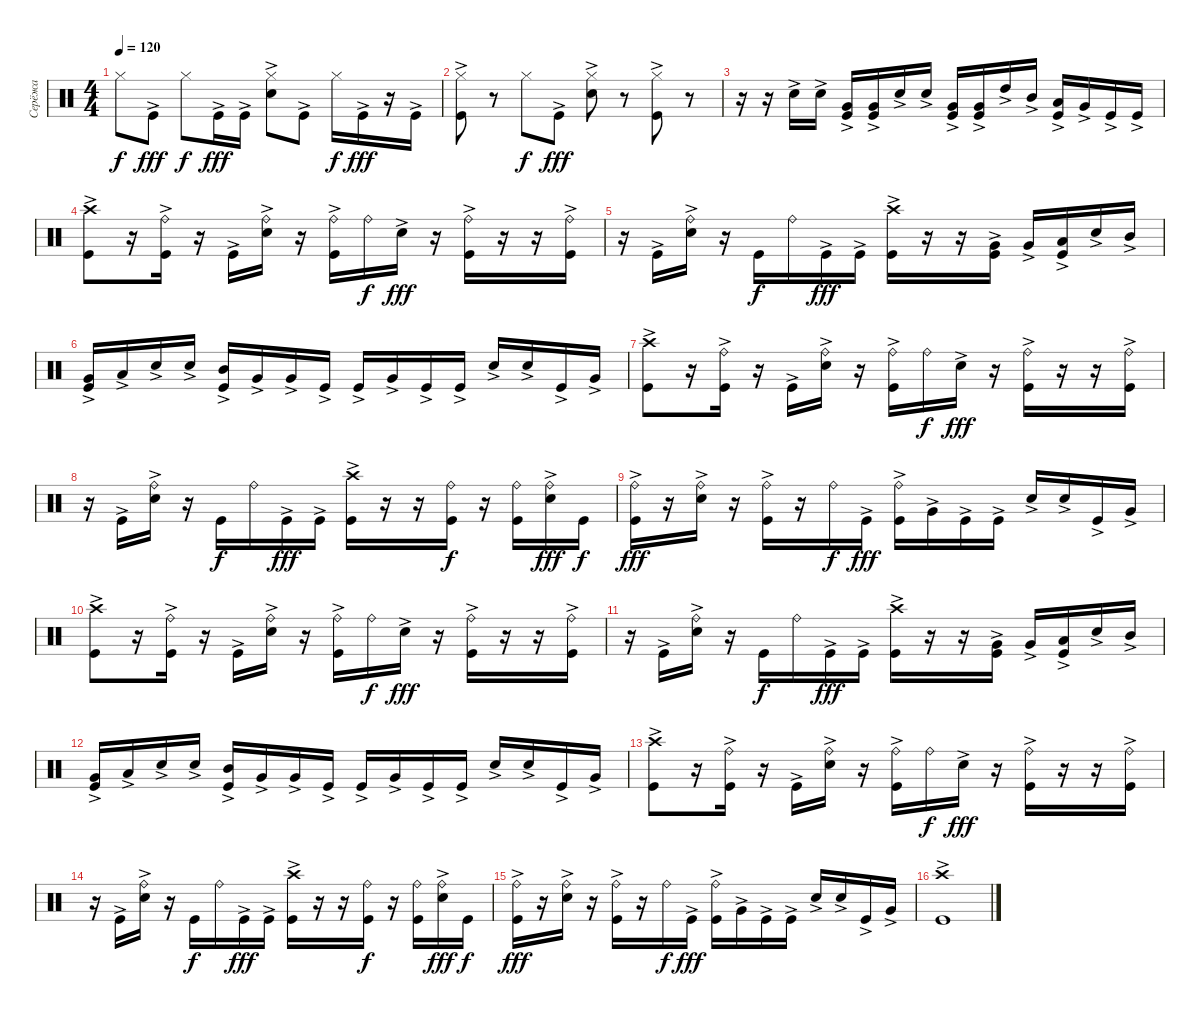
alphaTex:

\track ("Серёжа" "Серёжа") {instrument percussion}
\staff {score}
\articulation defaults
\ts (4 4)
\tempo 120
\clef neutral
\ks c "Hi-Hat (closed)".8{dy f} "Kick (hit)"{ac}.8{dy fff} "Hi-Hat (closed)".8{dy f} "Kick (hit)"{ac}.16{dy fff} "Kick (hit)"{ac}.16
("Hi-Hat (closed)" "Snare (hit) 2"{ac}).8 "Kick (hit)"{ac}.8 "Hi-Hat (closed)".16{dy f} "Kick (hit)"{ac}.16{dy fff} r.16 "Kick (hit)"{ac}.16 |
("Hi-Hat (closed)" "Kick (hit)"{ac}).8 r.8 "Hi-Hat (closed)".8{dy f} "Kick (hit)"{ac}.8{dy fff} ("Hi-Hat (closed)" "Snare (hit) 2"{ac}).8 r.8 ("Hi-Hat (closed)" "Kick (hit)"{ac}).8 r.8 |
r.16 r.16 "Snare (hit) 2"{ac}.16 "Snare (hit) 2"{ac}.16 ("Very Low Tom (hit)" "Kick (hit)"{ac}).16 ("Very Low Tom (hit)" "Kick (hit)"{ac}).16 "Snare (hit) 2"{ac}.16 "Snare (hit) 2"{ac}.16 ("Very Low Tom (hit)" "Kick (hit)"{ac}).16 ("Very Low Tom (hit)" "Kick (hit)"{ac}).16 "High Tom (hit)"{ac}.16 "Mid Tom (hit)"{ac}.16 ("Kick (hit)" "Low Tom (hit)"{ac}).16 "Very Low Tom (hit)"{ac}.16 "Kick (hit)"{ac}.16 "Kick (hit)"{ac}.16 |
("Crash high (hit)"{ac} "Kick (hit)"{ac}).8 r.16 ("Ride (bell)" "Kick (hit)"{ac}).16 r.16 "Kick (hit)"{ac}.16 ("Ride (bell)" "Snare (hit) 2"{ac}).16 r.16 ("Ride (bell)" "Kick (hit)"{ac}).16 "Ride (bell)".16{dy f} "Snare (hit) 2"{ac}.16{dy fff} r.16 ("Ride (bell)" "Kick (hit)"{ac}).16 r.16 r.16 ("Ride (bell)" "Kick (hit)"{ac}).16 |
r.16 "Kick (hit)"{ac}.16 ("Ride (bell)" "Snare (hit) 2"{ac}).16 r.16 "Kick (hit)".16{dy f} "Ride (bell)".16 "Kick (hit)"{ac}.16{dy fff} "Kick (hit)"{ac}.16 ("Crash high (hit)"{ac} "Kick (hit)"{ac}).16 r.16 r.16 ("Kick (hit)" "Very Low Tom (hit)"{ac}).16 "Very Low Tom (hit)"{ac}.16 ("Kick (hit)" "Low Tom (hit)"{ac}).16 "Snare (hit) 2"{ac}.16 "Mid Tom (hit)"{ac}.16 |
("Kick (hit)"{ac} "Very Low Tom (hit)"{ac}).16 "Low Tom (hit)"{ac}.16 "Snare (hit) 2"{ac}.16 "Snare (hit) 2"{ac}.16 ("Kick (hit)"{ac} "Mid Tom (hit)"{ac}).16 "Very Low Tom (hit)"{ac}.16 "Very Low Tom (hit)"{ac}.16 "Kick (hit)"{ac}.16 "Kick (hit)"{ac}.16 "Very Low Tom (hit)"{ac}.16 "Kick (hit)"{ac}.16 "Kick (hit)"{ac}.16 "Snare (hit) 2"{ac}.16 "Snare (hit) 2"{ac}.16 "Kick (hit)"{ac}.16 "Very Low Tom (hit)"{ac}.16 |
("Crash high (hit)"{ac} "Kick (hit)"{ac}).8 r.16 ("Ride (bell)" "Kick (hit)"{ac}).16 r.16 "Kick (hit)"{ac}.16 ("Ride (bell)" "Snare (hit) 2"{ac}).16 r.16 ("Ride (bell)" "Kick (hit)"{ac}).16 "Ride (bell)".16{dy f} "Snare (hit) 2"{ac}.16{dy fff} r.16 ("Ride (bell)" "Kick (hit)"{ac}).16 r.16 r.16 ("Ride (bell)" "Kick (hit)"{ac}).16 |
r.16 "Kick (hit)"{ac}.16 ("Ride (bell)" "Snare (hit) 2"{ac}).16 r.16 "Kick (hit)".16{dy f} "Ride (bell)".16 "Kick (hit)"{ac}.16{dy fff} "Kick (hit)"{ac}.16 ("Crash high (hit)"{ac} "Kick (hit)"{ac}).16 r.16 r.16 ("Ride (bell)" "Kick (hit)").16{dy f} r.16 ("Ride (bell)" "Kick (hit)").16 ("Ride (bell)" "Snare (hit) 2"{ac}).16{dy fff} "Kick (hit)".16{dy f} |
("Ride (bell)" "Kick (hit)"{ac}).16{dy fff} r.16 ("Ride (bell)" "Snare (hit) 2"{ac}).16 r.16 ("Ride (bell)" "Kick (hit)"{ac}).16 r.16 "Ride (bell)".16{dy f} "Kick (hit)"{ac}.16{dy fff} ("Ride (bell)" "Kick (hit)"{ac}).16 "Very Low Tom (hit)"{ac}.16 "Kick (hit)"{ac}.16 "Kick (hit)"{ac}.16 "Snare (hit) 2"{ac}.16 "Snare (hit) 2"{ac}.16 "Kick (hit)"{ac}.16 "Very Low Tom (hit)"{ac}.16 |
("Crash high (hit)"{ac} "Kick (hit)"{ac}).8 r.16 ("Ride (bell)" "Kick (hit)"{ac}).16 r.16 "Kick (hit)"{ac}.16 ("Ride (bell)" "Snare (hit) 2"{ac}).16 r.16 ("Ride (bell)" "Kick (hit)"{ac}).16 "Ride (bell)".16{dy f} "Snare (hit) 2"{ac}.16{dy fff} r.16 ("Ride (bell)" "Kick (hit)"{ac}).16 r.16 r.16 ("Ride (bell)" "Kick (hit)"{ac}).16 |
r.16 "Kick (hit)"{ac}.16 ("Ride (bell)" "Snare (hit) 2"{ac}).16 r.16 "Kick (hit)".16{dy f} "Ride (bell)".16 "Kick (hit)"{ac}.16{dy fff} "Kick (hit)"{ac}.16 ("Crash high (hit)"{ac} "Kick (hit)"{ac}).16 r.16 r.16 ("Kick (hit)" "Very Low Tom (hit)"{ac}).16 "Very Low Tom (hit)"{ac}.16 ("Kick (hit)" "Low Tom (hit)"{ac}).16 "Snare (hit) 2"{ac}.16 "Mid Tom (hit)"{ac}.16 |
("Kick (hit)"{ac} "Very Low Tom (hit)"{ac}).16 "Low Tom (hit)"{ac}.16 "Snare (hit) 2"{ac}.16 "Snare (hit) 2"{ac}.16 ("Kick (hit)"{ac} "Mid Tom (hit)"{ac}).16 "Very Low Tom (hit)"{ac}.16 "Very Low Tom (hit)"{ac}.16 "Kick (hit)"{ac}.16 "Kick (hit)"{ac}.16 "Very Low Tom (hit)"{ac}.16 "Kick (hit)"{ac}.16 "Kick (hit)"{ac}.16 "Snare (hit) 2"{ac}.16 "Snare (hit) 2"{ac}.16 "Kick (hit)"{ac}.16 "Very Low Tom (hit)"{ac}.16 |
("Crash high (hit)"{ac} "Kick (hit)"{ac}).8 r.16 ("Ride (bell)" "Kick (hit)"{ac}).16 r.16 "Kick (hit)"{ac}.16 ("Ride (bell)" "Snare (hit) 2"{ac}).16 r.16 ("Ride (bell)" "Kick (hit)"{ac}).16 "Ride (bell)".16{dy f} "Snare (hit) 2"{ac}.16{dy fff} r.16 ("Ride (bell)" "Kick (hit)"{ac}).16 r.16 r.16 ("Ride (bell)" "Kick (hit)"{ac}).16 |
r.16 "Kick (hit)"{ac}.16 ("Ride (bell)" "Snare (hit) 2"{ac}).16 r.16 "Kick (hit)".16{dy f} "Ride (bell)".16 "Kick (hit)"{ac}.16{dy fff} "Kick (hit)"{ac}.16 ("Crash high (hit)"{ac} "Kick (hit)"{ac}).16 r.16 r.16 ("Ride (bell)" "Kick (hit)").16{dy f} r.16 ("Ride (bell)" "Kick (hit)").16 ("Ride (bell)" "Snare (hit) 2"{ac}).16{dy fff} "Kick (hit)".16{dy f} |
("Ride (bell)" "Kick (hit)"{ac}).16{dy fff} r.16 ("Ride (bell)" "Snare (hit) 2"{ac}).16 r.16 ("Ride (bell)" "Kick (hit)"{ac}).16 r.16 "Ride (bell)".16{dy f} "Kick (hit)"{ac}.16{dy fff} ("Ride (bell)" "Kick (hit)"{ac}).16 "Very Low Tom (hit)"{ac}.16 "Kick (hit)"{ac}.16 "Kick (hit)"{ac}.16 "Snare (hit) 2"{ac}.16 "Snare (hit) 2"{ac}.16 "Kick (hit)"{ac}.16 "Very Low Tom (hit)"{ac}.16 |
("Crash high (hit)"{ac} "Kick (hit)"{ac}).1
